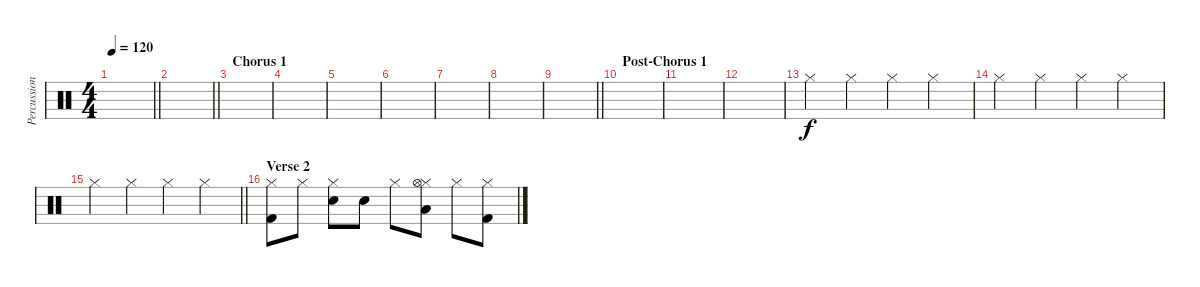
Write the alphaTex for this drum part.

\track ("Percussion" "Percussion") {instrument percussion}
\staff {score}
\articulation defaults
\ts (4 4)
\tempo 120
\clef neutral
\barLineRight lightlight
\ks c
|
\barLineRight lightlight
|
\section ("" "Chorus 1")
|
|
|
|
|
|
\barLineRight lightlight
|
\section ("" "Post-Chorus 1")
|
|
|
"Hi-Hat (closed)".4 "Hi-Hat (closed)".4 "Hi-Hat (closed)".4 "Hi-Hat (closed)".4 |
"Hi-Hat (closed)".4 "Hi-Hat (closed)".4 "Hi-Hat (closed)".4 "Hi-Hat (closed)".4 |
\barLineRight lightlight "Hi-Hat (closed)".4 "Hi-Hat (closed)".4 "Hi-Hat (closed)".4 "Hi-Hat (closed)".4
|
\section ("" "Verse 2")
("Hi-Hat (closed)" "Kick (hit) 2").8 "Hi-Hat (closed)".8 ("Hi-Hat (closed)" "Snare (hit) 2").8 "Hand Clap (hit)".8 "Hi-Hat (closed)".8 ("Hi-Hat (closed)" "Low Floor Tom (hit)" "Hi-Hat (open)").8 "Hi-Hat (closed)".8 ("Hi-Hat (closed)" "Kick (hit) 2").8
